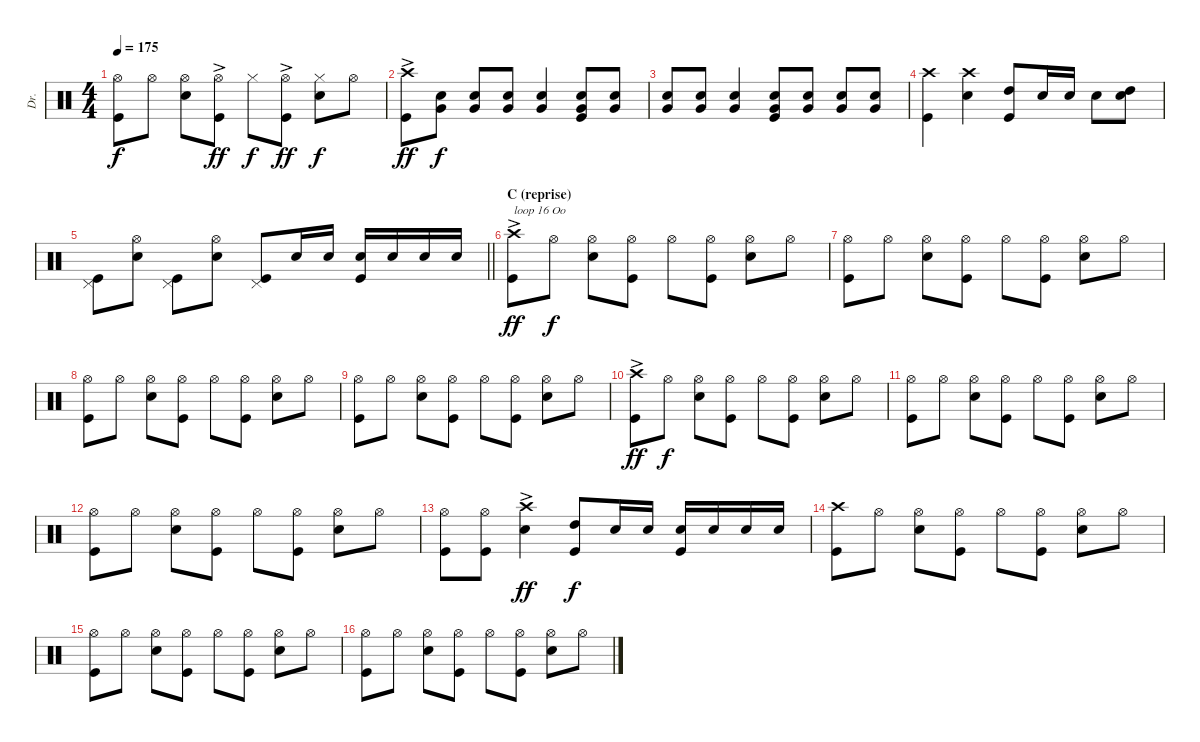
\track ("Dr." "Dr.") {instrument percussion}
\staff {score}
\articulation defaults
\ts (4 4)
\tempo 175
\clef neutral
\ks c
("Hi-Hat (open)" "Kick (hit)").8{dy f} "Hi-Hat (open)".8 ("Hi-Hat (open)" "Snare (hit) 2").8 ("Hi-Hat (open)"{ac} "Kick (hit)"{ac}).8{dy ff} "Hi-Hat (closed)".8{dy f} ("Hi-Hat (open)"{ac} "Kick (hit)"{ac}).8{dy ff} ("Hi-Hat (closed)" "Snare (hit) 2").8{dy f} "Hi-Hat (open)".8 |
("Crash high (hit)"{ac} "Kick (hit)"{ac}).8{dy ff} ("Very Low Tom (hit)" "Snare (hit) 2").8{dy f} ("Very Low Tom (hit)" "Snare (hit) 2").8 ("Very Low Tom (hit)" "Snare (hit) 2").8 ("Very Low Tom (hit)" "Snare (hit) 2").4 ("Very Low Tom (hit)" "Snare (hit) 2" "Kick (hit)").8 ("Very Low Tom (hit)" "Snare (hit) 2").8 |
("Very Low Tom (hit)" "Snare (hit) 2").8 ("Very Low Tom (hit)" "Snare (hit) 2").8 ("Very Low Tom (hit)" "Snare (hit) 2").4 ("Very Low Tom (hit)" "Snare (hit) 2" "Kick (hit)").8 ("Very Low Tom (hit)" "Snare (hit) 2").8 ("Very Low Tom (hit)" "Snare (hit) 2").8 ("Very Low Tom (hit)" "Snare (hit) 2").8 |
("Crash high (hit)" "Kick (hit)").4 ("Crash high (hit)" "Snare (hit) 2").4 ("High Tom (hit)" "Kick (hit)").8 "Snare (hit) 2".16 "Snare (hit) 2".16 "Snare (hit) 2".8 ("High Tom (hit)" "Snare (hit) 2").8 |
\barLineRight lightlight
("Pedal Hi-Hat (hit)" "Kick (hit)").8 ("Hi-Hat (open)" "Snare (hit) 2").8 ("Pedal Hi-Hat (hit)" "Kick (hit)").8 ("Hi-Hat (open)" "Snare (hit) 2").8 ("Pedal Hi-Hat (hit)" "Kick (hit)").8 "Snare (hit) 2".16 "Snare (hit) 2".16 ("Snare (hit) 2" "Kick (hit)").16 "Snare (hit) 2".16 "Snare (hit) 2".16 "Snare (hit) 2".16 |
\section ("" "C (reprise)")
("Crash high (hit)"{ac} "Kick (hit)"{ac}).8{txt "loop 16 Oo" dy ff} "Hi-Hat (open)".8{dy f} ("Hi-Hat (open)" "Snare (hit) 2").8 ("Hi-Hat (open)" "Kick (hit)").8 "Hi-Hat (open)".8 ("Hi-Hat (open)" "Kick (hit)").8 ("Hi-Hat (open)" "Snare (hit) 2").8 "Hi-Hat (open)".8 |
("Hi-Hat (open)" "Kick (hit)").8 "Hi-Hat (open)".8 ("Hi-Hat (open)" "Snare (hit) 2").8 ("Hi-Hat (open)" "Kick (hit)").8 "Hi-Hat (open)".8 ("Hi-Hat (open)" "Kick (hit)").8 ("Hi-Hat (open)" "Snare (hit) 2").8 "Hi-Hat (open)".8 |
("Hi-Hat (open)" "Kick (hit)").8 "Hi-Hat (open)".8 ("Hi-Hat (open)" "Snare (hit) 2").8 ("Hi-Hat (open)" "Kick (hit)").8 "Hi-Hat (open)".8 ("Hi-Hat (open)" "Kick (hit)").8 ("Hi-Hat (open)" "Snare (hit) 2").8 "Hi-Hat (open)".8 |
("Hi-Hat (open)" "Kick (hit)").8 "Hi-Hat (open)".8 ("Hi-Hat (open)" "Snare (hit) 2").8 ("Hi-Hat (open)" "Kick (hit)").8 "Hi-Hat (open)".8 ("Hi-Hat (open)" "Kick (hit)").8 ("Hi-Hat (open)" "Snare (hit) 2").8 "Hi-Hat (open)".8 |
("Crash high (hit)"{ac} "Kick (hit)"{ac}).8{dy ff} "Hi-Hat (open)".8{dy f} ("Hi-Hat (open)" "Snare (hit) 2").8 ("Hi-Hat (open)" "Kick (hit)").8 "Hi-Hat (open)".8 ("Hi-Hat (open)" "Kick (hit)").8 ("Hi-Hat (open)" "Snare (hit) 2").8 "Hi-Hat (open)".8 |
("Hi-Hat (open)" "Kick (hit)").8 "Hi-Hat (open)".8 ("Hi-Hat (open)" "Snare (hit) 2").8 ("Hi-Hat (open)" "Kick (hit)").8 "Hi-Hat (open)".8 ("Hi-Hat (open)" "Kick (hit)").8 ("Hi-Hat (open)" "Snare (hit) 2").8 "Hi-Hat (open)".8 |
("Hi-Hat (open)" "Kick (hit)").8 "Hi-Hat (open)".8 ("Hi-Hat (open)" "Snare (hit) 2").8 ("Hi-Hat (open)" "Kick (hit)").8 "Hi-Hat (open)".8 ("Hi-Hat (open)" "Kick (hit)").8 ("Hi-Hat (open)" "Snare (hit) 2").8 "Hi-Hat (open)".8 |
("Hi-Hat (open)" "Kick (hit)").8 ("Hi-Hat (open)" "Kick (hit)").8 ("Crash high (hit)"{ac} "Snare (hit) 2"{ac}).4{dy ff} ("High Tom (hit)" "Kick (hit)").8{dy f} "Snare (hit) 2".16 "Snare (hit) 2".16 ("Snare (hit) 2" "Kick (hit)").16 "Snare (hit) 2".16 "Snare (hit) 2".16 "Snare (hit) 2".16 |
("Crash high (hit)" "Kick (hit)").8 "Hi-Hat (open)".8 ("Hi-Hat (open)" "Snare (hit) 2").8 ("Hi-Hat (open)" "Kick (hit)").8 "Hi-Hat (open)".8 ("Hi-Hat (open)" "Kick (hit)").8 ("Hi-Hat (open)" "Snare (hit) 2").8 "Hi-Hat (open)".8 |
("Hi-Hat (open)" "Kick (hit)").8 "Hi-Hat (open)".8 ("Hi-Hat (open)" "Snare (hit) 2").8 ("Hi-Hat (open)" "Kick (hit)").8 "Hi-Hat (open)".8 ("Hi-Hat (open)" "Kick (hit)").8 ("Hi-Hat (open)" "Snare (hit) 2").8 "Hi-Hat (open)".8 |
("Hi-Hat (open)" "Kick (hit)").8 "Hi-Hat (open)".8 ("Hi-Hat (open)" "Snare (hit) 2").8 ("Hi-Hat (open)" "Kick (hit)").8 "Hi-Hat (open)".8 ("Hi-Hat (open)" "Kick (hit)").8 ("Hi-Hat (open)" "Snare (hit) 2").8 "Hi-Hat (open)".8
